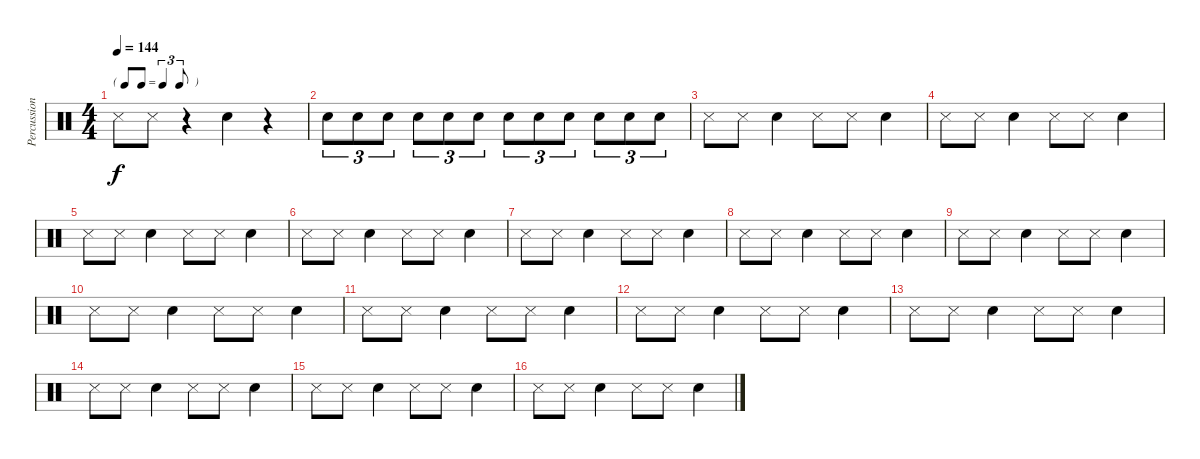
\track ("Percussions" "Percussion") {instrument percussion}
\staff {score}
\articulation defaults
\ts (4 4)
\tf triplet8th
\tempo 144
\clef neutral
\ks c "Snare (side stick) 3".8{dy f} "Snare (side stick) 3".8
r.4 "Snare (hit) 2".4 r.4 |
"Snare (hit) 2".8{tu (3 2)} "Snare (hit) 2".8{tu (3 2)} "Snare (hit) 2".8{tu (3 2)} "Snare (hit) 2".8{tu (3 2)} "Snare (hit) 2".8{tu (3 2)} "Snare (hit) 2".8{tu (3 2)} "Snare (hit) 2".8{tu (3 2)} "Snare (hit) 2".8{tu (3 2)} "Snare (hit) 2".8{tu (3 2)} "Snare (hit) 2".8{tu (3 2)} "Snare (hit) 2".8{tu (3 2)} "Snare (hit) 2".8{tu (3 2)} |
"Snare (side stick) 3".8 "Snare (side stick) 3".8 "Snare (hit) 2".4 "Snare (side stick) 3".8 "Snare (side stick) 3".8 "Snare (hit) 2".4 |
"Snare (side stick) 3".8 "Snare (side stick) 3".8 "Snare (hit) 2".4 "Snare (side stick) 3".8 "Snare (side stick) 3".8 "Snare (hit) 2".4 |
"Snare (side stick) 3".8 "Snare (side stick) 3".8 "Snare (hit) 2".4 "Snare (side stick) 3".8 "Snare (side stick) 3".8 "Snare (hit) 2".4 |
"Snare (side stick) 3".8 "Snare (side stick) 3".8 "Snare (hit) 2".4 "Snare (side stick) 3".8 "Snare (side stick) 3".8 "Snare (hit) 2".4 |
"Snare (side stick) 3".8 "Snare (side stick) 3".8 "Snare (hit) 2".4 "Snare (side stick) 3".8 "Snare (side stick) 3".8 "Snare (hit) 2".4 |
"Snare (side stick) 3".8 "Snare (side stick) 3".8 "Snare (hit) 2".4 "Snare (side stick) 3".8 "Snare (side stick) 3".8 "Snare (hit) 2".4 |
"Snare (side stick) 3".8 "Snare (side stick) 3".8 "Snare (hit) 2".4 "Snare (side stick) 3".8 "Snare (side stick) 3".8 "Snare (hit) 2".4 |
"Snare (side stick) 3".8 "Snare (side stick) 3".8 "Snare (hit) 2".4 "Snare (side stick) 3".8 "Snare (side stick) 3".8 "Snare (hit) 2".4 |
"Snare (side stick) 3".8 "Snare (side stick) 3".8 "Snare (hit) 2".4 "Snare (side stick) 3".8 "Snare (side stick) 3".8 "Snare (hit) 2".4 |
"Snare (side stick) 3".8 "Snare (side stick) 3".8 "Snare (hit) 2".4 "Snare (side stick) 3".8 "Snare (side stick) 3".8 "Snare (hit) 2".4 |
"Snare (side stick) 3".8 "Snare (side stick) 3".8 "Snare (hit) 2".4 "Snare (side stick) 3".8 "Snare (side stick) 3".8 "Snare (hit) 2".4 |
"Snare (side stick) 3".8 "Snare (side stick) 3".8 "Snare (hit) 2".4 "Snare (side stick) 3".8 "Snare (side stick) 3".8 "Snare (hit) 2".4 |
"Snare (side stick) 3".8 "Snare (side stick) 3".8 "Snare (hit) 2".4 "Snare (side stick) 3".8 "Snare (side stick) 3".8 "Snare (hit) 2".4 |
"Snare (side stick) 3".8 "Snare (side stick) 3".8 "Snare (hit) 2".4 "Snare (side stick) 3".8 "Snare (side stick) 3".8 "Snare (hit) 2".4
